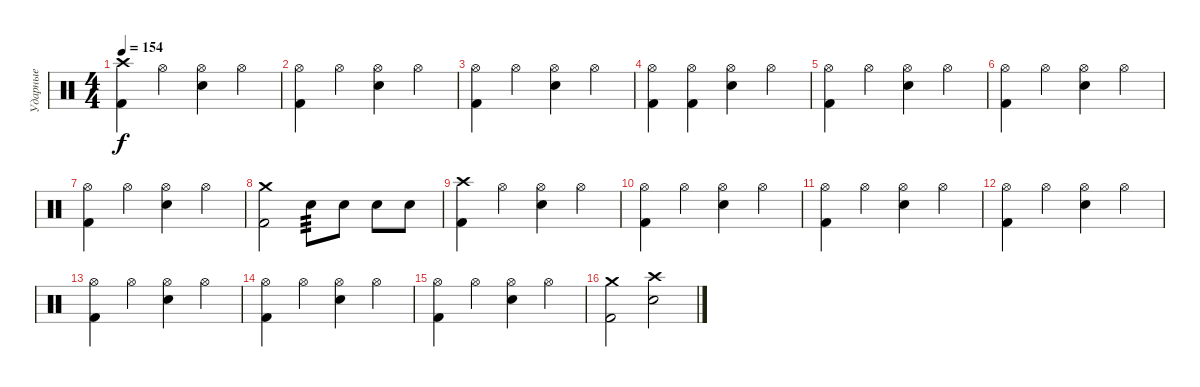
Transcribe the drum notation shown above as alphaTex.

\track ("Ударные" "Ударные") {instrument percussion}
\staff {score}
\articulation defaults
\ts (4 4)
\tempo 154
\clef neutral
\ks c
("Crash high (hit)" "Kick (hit) 2").4{dy f} "Hi-Hat (open)".4 ("Hi-Hat (open)" "Snare (hit) 2").4 "Hi-Hat (open)".4 |
("Hi-Hat (open)" "Kick (hit) 2").4 "Hi-Hat (open)".4 ("Hi-Hat (open)" "Snare (hit) 2").4 "Hi-Hat (open)".4 |
("Hi-Hat (open)" "Kick (hit) 2").4 "Hi-Hat (open)".4 ("Hi-Hat (open)" "Snare (hit) 2").4 "Hi-Hat (open)".4 |
("Hi-Hat (open)" "Kick (hit) 2").4 ("Hi-Hat (open)" "Kick (hit) 2").4 ("Hi-Hat (open)" "Snare (hit) 2").4 "Hi-Hat (open)".4 |
("Hi-Hat (open)" "Kick (hit) 2").4 "Hi-Hat (open)".4 ("Hi-Hat (open)" "Snare (hit) 2").4 "Hi-Hat (open)".4 |
("Hi-Hat (open)" "Kick (hit) 2").4 "Hi-Hat (open)".4 ("Hi-Hat (open)" "Snare (hit) 2").4 "Hi-Hat (open)".4 |
("Hi-Hat (open)" "Kick (hit) 2").4 "Hi-Hat (open)".4 ("Hi-Hat (open)" "Snare (hit) 2").4 "Hi-Hat (open)".4 |
("Crash medium (hit)" "Kick (hit) 2").2 "Snare (hit) 2".8{tp 3} "Snare (hit) 2".8 "Snare (hit) 2".8 "Snare (hit) 2".8 |
("Crash high (hit)" "Kick (hit) 2").4 "Hi-Hat (open)".4 ("Hi-Hat (open)" "Snare (hit) 2").4 "Hi-Hat (open)".4 |
("Hi-Hat (open)" "Kick (hit) 2").4 "Hi-Hat (open)".4 ("Hi-Hat (open)" "Snare (hit) 2").4 "Hi-Hat (open)".4 |
("Hi-Hat (open)" "Kick (hit) 2").4 "Hi-Hat (open)".4 ("Hi-Hat (open)" "Snare (hit) 2").4 "Hi-Hat (open)".4 |
("Hi-Hat (open)" "Kick (hit) 2").4 "Hi-Hat (open)".4 ("Hi-Hat (open)" "Snare (hit) 2").4 "Hi-Hat (open)".4 |
("Hi-Hat (open)" "Kick (hit) 2").4 "Hi-Hat (open)".4 ("Hi-Hat (open)" "Snare (hit) 2").4 "Hi-Hat (open)".4 |
("Hi-Hat (open)" "Kick (hit) 2").4 "Hi-Hat (open)".4 ("Hi-Hat (open)" "Snare (hit) 2").4 "Hi-Hat (open)".4 |
("Hi-Hat (open)" "Kick (hit) 2").4 "Hi-Hat (open)".4 ("Hi-Hat (open)" "Snare (hit) 2").4 "Hi-Hat (open)".4 |
("Crash medium (hit)" "Kick (hit) 2").2 ("Crash high (hit)" "Snare (hit) 2").2
